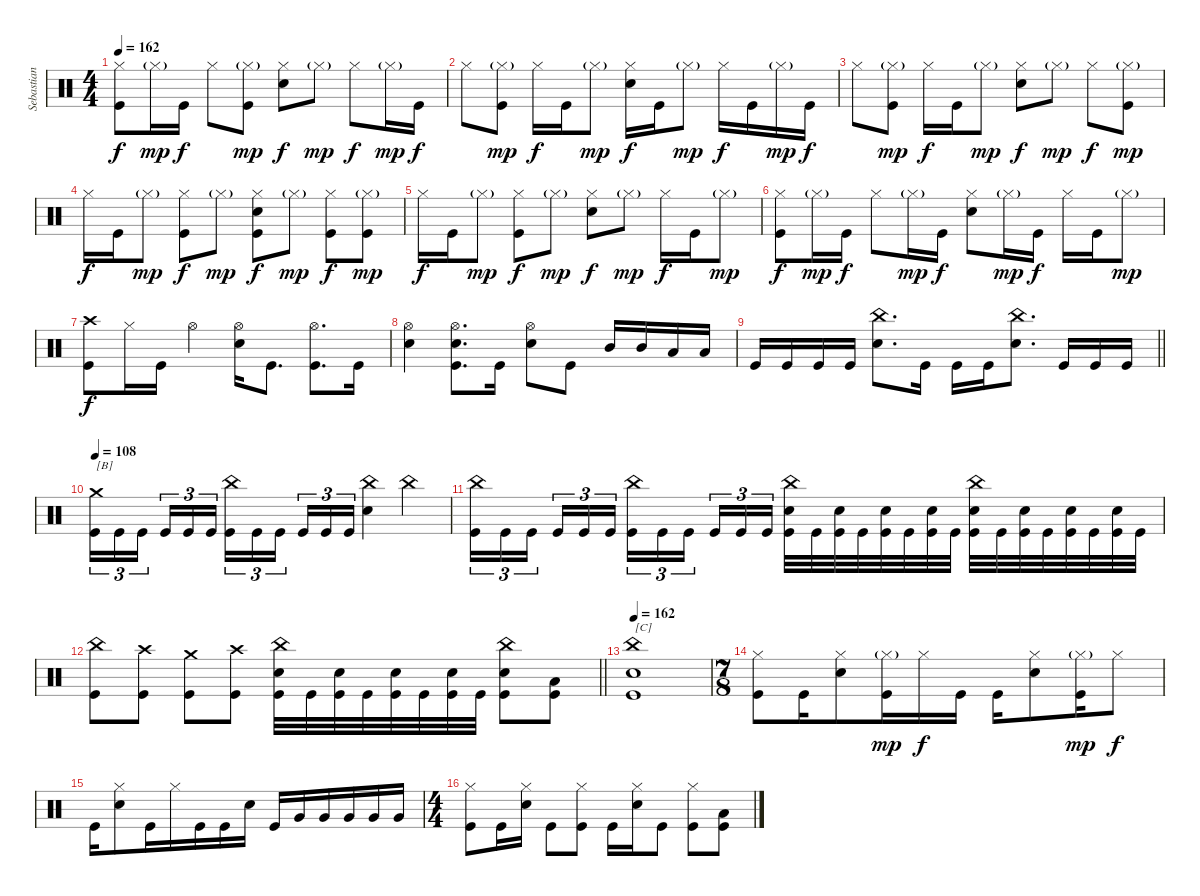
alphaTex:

\track ("Sebastian Lanser" "Sebastian ") {instrument percussion}
\staff {score}
\articulation defaults
\ts (4 4)
\tempo 162
\clef neutral
\ks c
("Hi-Hat (closed)" "Kick (hit)").8{dy f} "Hi-Hat (closed)"{g}.16{dy mp} "Kick (hit)".16{dy f} "Hi-Hat (closed)".8 ("Hi-Hat (closed)"{g} "Kick (hit)").8{dy mp} ("Hi-Hat (closed)" "Snare (hit) 2").8{dy f} "Hi-Hat (closed)"{g}.8{dy mp} "Hi-Hat (closed)".8{dy f} "Hi-Hat (closed)"{g}.16{dy mp} "Kick (hit)".16{dy f} |
"Hi-Hat (closed)".8 ("Hi-Hat (closed)"{g} "Kick (hit)").8{dy mp} "Hi-Hat (closed)".16{dy f} "Kick (hit)".16 "Hi-Hat (closed)"{g}.8{dy mp} ("Hi-Hat (closed)" "Snare (hit) 2").16{dy f} "Kick (hit)".16 "Hi-Hat (closed)"{g}.8{dy mp} "Hi-Hat (closed)".16{dy f} "Kick (hit)".16 "Hi-Hat (closed)"{g}.16{dy mp} "Kick (hit)".16{dy f} |
"Hi-Hat (closed)".8 ("Hi-Hat (closed)"{g} "Kick (hit)").8{dy mp} "Hi-Hat (closed)".16{dy f} "Kick (hit)".16 "Hi-Hat (closed)"{g}.8{dy mp} ("Hi-Hat (closed)" "Snare (hit) 2").8{dy f} "Hi-Hat (closed)"{g}.8{dy mp} "Hi-Hat (closed)".8{dy f} ("Hi-Hat (closed)"{g} "Kick (hit)").8{dy mp} |
"Hi-Hat (closed)".16{dy f} "Kick (hit)".16 "Hi-Hat (closed)"{g}.8{dy mp} ("Hi-Hat (closed)" "Kick (hit)").8{dy f} "Hi-Hat (closed)"{g}.8{dy mp} ("Hi-Hat (closed)" "Snare (hit) 2" "Kick (hit)").8{dy f} "Hi-Hat (closed)"{g}.8{dy mp} ("Hi-Hat (closed)" "Kick (hit)").8{dy f} ("Hi-Hat (closed)"{g} "Kick (hit)").8{dy mp} |
"Hi-Hat (closed)".16{dy f} "Kick (hit)".16 "Hi-Hat (closed)"{g}.8{dy mp} ("Hi-Hat (closed)" "Kick (hit)").8{dy f} "Hi-Hat (closed)"{g}.8{dy mp} ("Hi-Hat (closed)" "Snare (hit) 2").8{dy f} "Hi-Hat (closed)"{g}.8{dy mp} "Hi-Hat (closed)".16{dy f} "Kick (hit)".16 "Hi-Hat (closed)"{g}.8{dy mp} |
("Hi-Hat (closed)" "Kick (hit)").8{dy f} "Hi-Hat (closed)"{g}.16{dy mp} "Kick (hit)".16{dy f} "Hi-Hat (closed)".8 "Hi-Hat (closed)"{g}.16{dy mp} "Kick (hit)".16{dy f} ("Hi-Hat (closed)" "Snare (hit) 2").8 "Hi-Hat (closed)"{g}.16{dy mp} "Kick (hit)".16{dy f} "Hi-Hat (closed)".16 "Kick (hit)".16 "Hi-Hat (closed)"{g}.8{dy mp} |
("Crash high (hit)" "Kick (hit)").8{dy f} "Hi-Hat (closed)".16 "Kick (hit)".16 "Hi-Hat (open)".4 ("Hi-Hat (open)" "Snare (hit) 2").16 "Kick (hit)".8{d} ("Hi-Hat (open)" "Kick (hit)").8{d} "Kick (hit)".16 |
("Hi-Hat (open)" "Snare (hit) 2").4 ("Hi-Hat (open)" "Snare (hit) 2" "Kick (hit)").8{d} "Kick (hit)".16 ("Hi-Hat (open)" "Snare (hit) 2").8 "Kick (hit)".8 "Mid Tom (hit)".16 "Mid Tom (hit)".16 "Low Tom (hit)".16 "Low Tom (hit)".16 |
\barLineRight lightlight "Kick (hit)".16 "Kick (hit)".16 "Kick (hit)".16 "Kick (hit)".16
("China (hit)" "Snare (hit) 2").8{d} "Kick (hit)".16 "Kick (hit)".16 "Kick (hit)".16 ("China (hit)" "Snare (hit) 2").8{d} "Kick (hit)".16 "Kick (hit)".16 "Kick (hit)".16 |
\tempo 108
("Crash medium (hit)" "Kick (hit)").16{tu (3 2) txt "[B]"} "Kick (hit)".16{tu (3 2)} "Kick (hit)".16{tu (3 2) beam splitsecondary} "Kick (hit)".16{tu (3 2)} "Kick (hit)".16{tu (3 2)} "Kick (hit)".16{tu (3 2)} ("China (hit)" "Kick (hit)").16{tu (3 2)} "Kick (hit)".16{tu (3 2)} "Kick (hit)".16{tu (3 2) beam splitsecondary} "Kick (hit)".16{tu (3 2)} "Kick (hit)".16{tu (3 2)} "Kick (hit)".16{tu (3 2)} ("China (hit)" "Snare (hit) 2").4 "China (hit)".4 |
("China (hit)" "Kick (hit)").16{tu (3 2)} "Kick (hit)".16{tu (3 2)} "Kick (hit)".16{tu (3 2) beam splitsecondary} "Kick (hit)".16{tu (3 2)} "Kick (hit)".16{tu (3 2)} "Kick (hit)".16{tu (3 2)} ("China (hit)" "Kick (hit)").16{tu (3 2)} "Kick (hit)".16{tu (3 2)} "Kick (hit)".16{tu (3 2) beam splitsecondary} "Kick (hit)".16{tu (3 2)} "Kick (hit)".16{tu (3 2)} "Kick (hit)".16{tu (3 2)} ("China (hit)" "Snare (hit) 2" "Kick (hit)").32 "Kick (hit)".32 ("Snare (hit) 2" "Kick (hit)").32 "Kick (hit)".32 ("Snare (hit) 2" "Kick (hit)").32 "Kick (hit)".32 ("Snare (hit) 2" "Kick (hit)").32 "Kick (hit)".32 ("China (hit)" "Snare (hit) 2" "Kick (hit)").32 "Kick (hit)".32 ("Snare (hit) 2" "Kick (hit)").32 "Kick (hit)".32 ("Snare (hit) 2" "Kick (hit)").32 "Kick (hit)".32 ("Snare (hit) 2" "Kick (hit)").32 "Kick (hit)".32 |
\barLineRight lightlight
("China (hit)" "Kick (hit)").8 ("Crash high (hit)" "Kick (hit)").8 ("Crash medium (hit)" "Kick (hit)").8 ("Crash high (hit)" "Kick (hit)").8 ("China (hit)" "Snare (hit) 2" "Kick (hit)").32 "Kick (hit)".32 ("Snare (hit) 2" "Kick (hit)").32 "Kick (hit)".32 ("Snare (hit) 2" "Kick (hit)").32 "Kick (hit)".32 ("Snare (hit) 2" "Kick (hit)").32 "Kick (hit)".32 ("China (hit)" "Snare (hit) 2" "Kick (hit)").8 ("Low Tom (hit)" "Kick (hit)").8 |
\tempo 162
("China (hit)" "Snare (hit) 2" "Kick (hit)").1{txt "[C]"} |
\ts (7 8)
("Hi-Hat (closed)" "Kick (hit)").8 "Kick (hit)".16 ("Hi-Hat (closed)" "Snare (hit) 2").8 ("Hi-Hat (closed)"{g} "Kick (hit)").16{dy mp} "Hi-Hat (closed)".16{dy f} "Kick (hit)".16 "Kick (hit)".16 ("Hi-Hat (closed)" "Snare (hit) 2").8 ("Hi-Hat (closed)"{g} "Kick (hit)").16{dy mp} "Hi-Hat (closed)".8{dy f} |
"Kick (hit)".16 ("Hi-Hat (closed)" "Snare (hit) 2").8 "Kick (hit)".16 "Hi-Hat (closed)".16 "Kick (hit)".16 "Kick (hit)".16 "Snare (hit) 2".16 "Kick (hit)".16 "Very Low Tom (hit)".16 "Very Low Tom (hit)".16 "Very Low Tom (hit)".16 "Very Low Tom (hit)".16 "Very Low Tom (hit)".16 |
\ts (4 4)
("Hi-Hat (closed)" "Kick (hit)").8 "Kick (hit)".16 ("Hi-Hat (closed)" "Snare (hit) 2").16 "Kick (hit)".8 ("Hi-Hat (closed)" "Kick (hit)").8 "Kick (hit)".16 ("Hi-Hat (closed)" "Snare (hit) 2").16 "Kick (hit)".8 ("Hi-Hat (closed)" "Kick (hit)").8 ("Low Tom (hit)" "Kick (hit)").8
